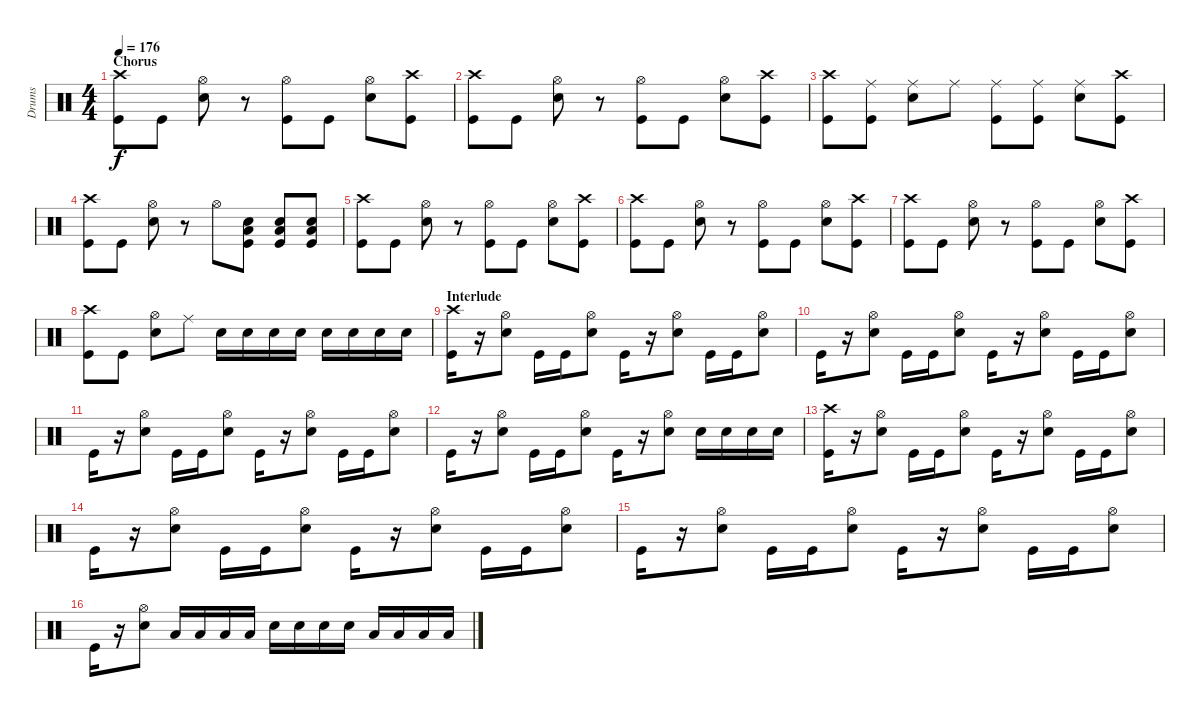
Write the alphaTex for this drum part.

\track ("Drums" "Drums") {instrument percussion}
\staff {score}
\articulation defaults
\ts (4 4)
\section ("" "Chorus")
\tempo 176
\clef neutral
\ks c
("Crash high (hit)" "Kick (hit)").8{dy f} "Kick (hit)".8 ("Hi-Hat (open)" "Snare (hit) 2").8 r.8 ("Hi-Hat (open)" "Kick (hit)").8 "Kick (hit)".8 ("Hi-Hat (open)" "Snare (hit) 2").8 ("Crash high (hit)" "Kick (hit)").8 |
("Crash high (hit)" "Kick (hit)").8 "Kick (hit)".8 ("Hi-Hat (open)" "Snare (hit) 2").8 r.8 ("Hi-Hat (open)" "Kick (hit)").8 "Kick (hit)".8 ("Hi-Hat (open)" "Snare (hit) 2").8 ("Crash high (hit)" "Kick (hit)").8 |
("Crash high (hit)" "Kick (hit)").8 ("Ride (middle)" "Kick (hit)").8 ("Ride (middle)" "Snare (hit) 2").8 "Ride (middle)".8 ("Ride (middle)" "Kick (hit)").8 ("Ride (middle)" "Kick (hit)").8 ("Ride (middle)" "Snare (hit) 2").8 ("Crash high (hit)" "Kick (hit)").8 |
("Crash high (hit)" "Kick (hit)").8 "Kick (hit)".8 ("Hi-Hat (open)" "Snare (hit) 2").8 r.8 "Hi-Hat (open)".8 ("Snare (hit) 2" "Low Floor Tom (hit)" "Kick (hit)").8 ("Snare (hit) 2" "Low Floor Tom (hit)" "Kick (hit)").8 ("Snare (hit) 2" "Low Floor Tom (hit)" "Kick (hit)").8 |
("Crash high (hit)" "Kick (hit)").8 "Kick (hit)".8 ("Hi-Hat (open)" "Snare (hit) 2").8 r.8 ("Hi-Hat (open)" "Kick (hit)").8 "Kick (hit)".8 ("Hi-Hat (open)" "Snare (hit) 2").8 ("Crash high (hit)" "Kick (hit)").8 |
("Crash high (hit)" "Kick (hit)").8 "Kick (hit)".8 ("Hi-Hat (open)" "Snare (hit) 2").8 r.8 ("Hi-Hat (open)" "Kick (hit)").8 "Kick (hit)".8 ("Hi-Hat (open)" "Snare (hit) 2").8 ("Crash high (hit)" "Kick (hit)").8 |
("Crash high (hit)" "Kick (hit)").8 "Kick (hit)".8 ("Hi-Hat (open)" "Snare (hit) 2").8 r.8 ("Hi-Hat (open)" "Kick (hit)").8 "Kick (hit)".8 ("Hi-Hat (open)" "Snare (hit) 2").8 ("Crash high (hit)" "Kick (hit)").8 |
("Crash high (hit)" "Kick (hit)").8 "Kick (hit)".8 ("Hi-Hat (open)" "Snare (hit) 2").8 "Ride (middle)".8 "Snare (hit) 2".16 "Snare (hit) 2".16 "Snare (hit) 2".16 "Snare (hit) 2".16 "Snare (hit) 2".16 "Snare (hit) 2".16 "Snare (hit) 2".16 "Snare (hit) 2".16 |
\section ("" "Interlude")
("Crash high (hit)" "Kick (hit)").16 r.16 ("Hi-Hat (open)" "Snare (hit) 2").8 "Kick (hit)".16 "Kick (hit)".16 ("Hi-Hat (open)" "Snare (hit) 2").8 "Kick (hit)".16 r.16 ("Hi-Hat (open)" "Snare (hit) 2").8 "Kick (hit)".16 "Kick (hit)".16 ("Hi-Hat (open)" "Snare (hit) 2").8 |
"Kick (hit)".16 r.16 ("Hi-Hat (open)" "Snare (hit) 2").8 "Kick (hit)".16 "Kick (hit)".16 ("Hi-Hat (open)" "Snare (hit) 2").8 "Kick (hit)".16 r.16 ("Hi-Hat (open)" "Snare (hit) 2").8 "Kick (hit)".16 "Kick (hit)".16 ("Hi-Hat (open)" "Snare (hit) 2").8 |
"Kick (hit)".16 r.16 ("Hi-Hat (open)" "Snare (hit) 2").8 "Kick (hit)".16 "Kick (hit)".16 ("Hi-Hat (open)" "Snare (hit) 2").8 "Kick (hit)".16 r.16 ("Hi-Hat (open)" "Snare (hit) 2").8 "Kick (hit)".16 "Kick (hit)".16 ("Hi-Hat (open)" "Snare (hit) 2").8 |
"Kick (hit)".16 r.16 ("Hi-Hat (open)" "Snare (hit) 2").8 "Kick (hit)".16 "Kick (hit)".16 ("Hi-Hat (open)" "Snare (hit) 2").8 "Kick (hit)".16 r.16 ("Hi-Hat (open)" "Snare (hit) 2").8 "Snare (hit) 2".16 "Snare (hit) 2".16 "Snare (hit) 2".16 "Snare (hit) 2".16 |
("Crash high (hit)" "Kick (hit)").16 r.16 ("Hi-Hat (open)" "Snare (hit) 2").8 "Kick (hit)".16 "Kick (hit)".16 ("Hi-Hat (open)" "Snare (hit) 2").8 "Kick (hit)".16 r.16 ("Hi-Hat (open)" "Snare (hit) 2").8 "Kick (hit)".16 "Kick (hit)".16 ("Hi-Hat (open)" "Snare (hit) 2").8 |
"Kick (hit)".16 r.16 ("Hi-Hat (open)" "Snare (hit) 2").8 "Kick (hit)".16 "Kick (hit)".16 ("Hi-Hat (open)" "Snare (hit) 2").8 "Kick (hit)".16 r.16 ("Hi-Hat (open)" "Snare (hit) 2").8 "Kick (hit)".16 "Kick (hit)".16 ("Hi-Hat (open)" "Snare (hit) 2").8 |
"Kick (hit)".16 r.16 ("Hi-Hat (open)" "Snare (hit) 2").8 "Kick (hit)".16 "Kick (hit)".16 ("Hi-Hat (open)" "Snare (hit) 2").8 "Kick (hit)".16 r.16 ("Hi-Hat (open)" "Snare (hit) 2").8 "Kick (hit)".16 "Kick (hit)".16 ("Hi-Hat (open)" "Snare (hit) 2").8 |
"Kick (hit)".16 r.16 ("Hi-Hat (open)" "Snare (hit) 2").8 "Low Tom (hit)".16 "Low Tom (hit)".16 "Low Tom (hit)".16 "Low Tom (hit)".16 "Snare (hit) 2".16 "Snare (hit) 2".16 "Snare (hit) 2".16 "Snare (hit) 2".16 "Low Tom (hit)".16 "Low Tom (hit)".16 "Low Tom (hit)".16 "Low Tom (hit)".16
